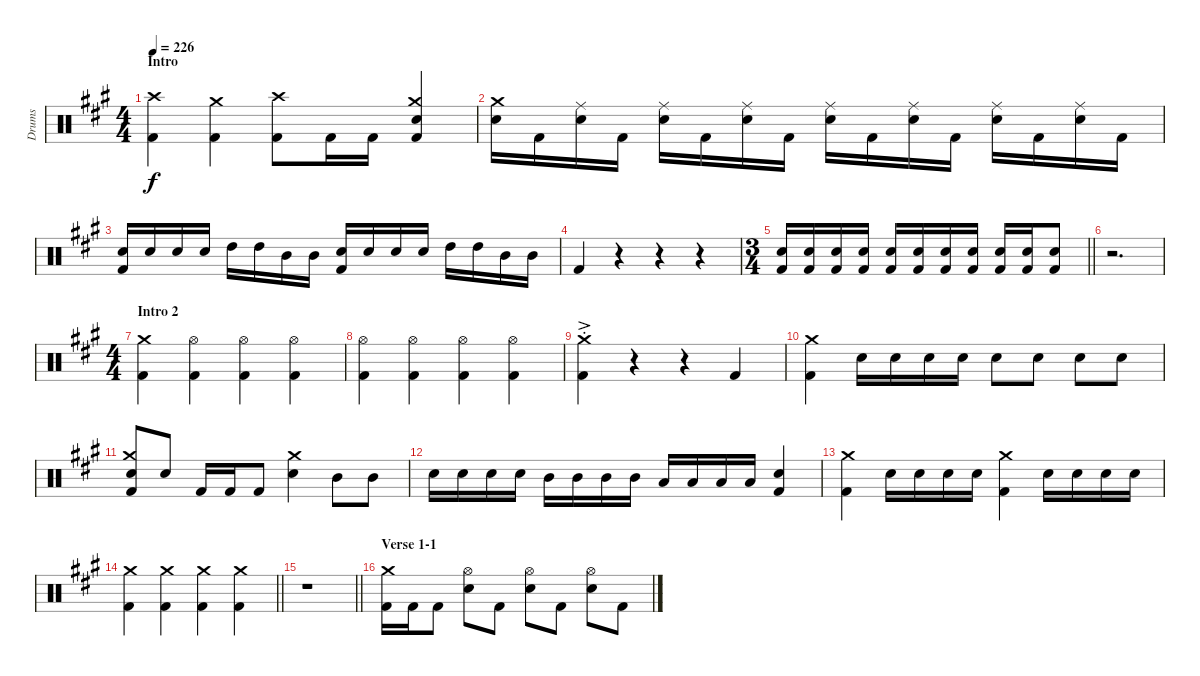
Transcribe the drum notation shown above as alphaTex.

\track ("Drums" "Drums") {instrument percussion}
\staff {score}
\articulation defaults
\ts (4 4)
\section ("" "Intro")
\tempo 226
\clef neutral
\ks a
("Crash high (hit)" "Kick (hit) 2").4{dy f} ("Crash medium (hit)" "Kick (hit) 2").4 ("Crash high (hit)" "Kick (hit) 2").8 "Kick (hit) 2".16 "Kick (hit) 2".16 ("Crash medium (hit)" "Snare (hit) 2" "Kick (hit) 2").4 |
("Crash medium (hit)" "Snare (hit) 2").16 "Kick (hit) 2".16 ("Ride (middle)" "Snare (hit) 2").16 "Kick (hit) 2".16 ("Ride (middle)" "Snare (hit) 2").16 "Kick (hit) 2".16 ("Ride (middle)" "Snare (hit) 2").16 "Kick (hit) 2".16 ("Ride (middle)" "Snare (hit) 2").16 "Kick (hit) 2".16 ("Ride (middle)" "Snare (hit) 2").16 "Kick (hit) 2".16 ("Ride (middle)" "Snare (hit) 2").16 "Kick (hit) 2".16 ("Ride (middle)" "Snare (hit) 2").16 "Kick (hit) 2".16 |
("Snare (hit) 2" "Kick (hit) 2").16 "Snare (hit) 2".16 "Snare (hit) 2".16 "Snare (hit) 2".16 "High Tom (hit)".16 "High Tom (hit)".16 "Mid Tom (hit)".16 "Mid Tom (hit)".16 ("Snare (hit) 2" "Kick (hit) 2").16 "Snare (hit) 2".16 "Snare (hit) 2".16 "Snare (hit) 2".16 "High Tom (hit)".16 "High Tom (hit)".16 "Mid Tom (hit)".16 "Mid Tom (hit)".16 |
"Kick (hit) 2".4 r.4 r.4 r.4 |
\ts (3 4)
\barLineRight lightlight
("Snare (hit) 2" "Kick (hit) 2").16 ("Snare (hit) 2" "Kick (hit) 2").16 ("Snare (hit) 2" "Kick (hit) 2").16 ("Snare (hit) 2" "Kick (hit) 2").16 ("Snare (hit) 2" "Kick (hit) 2").16 ("Snare (hit) 2" "Kick (hit) 2").16 ("Snare (hit) 2" "Kick (hit) 2").16 ("Snare (hit) 2" "Kick (hit) 2").16 ("Snare (hit) 2" "Kick (hit) 2").16 ("Snare (hit) 2" "Kick (hit) 2").16 ("Snare (hit) 2" "Kick (hit) 2").8 |
r.2{d} |
\ts (4 4)
\section ("" "Intro 2")
("Crash medium (hit)" "Kick (hit) 2").4 ("Hi-Hat (open)" "Kick (hit) 2").4 ("Hi-Hat (open)" "Kick (hit) 2").4 ("Hi-Hat (open)" "Kick (hit) 2").4 |
("Hi-Hat (open)" "Kick (hit) 2").4 ("Hi-Hat (open)" "Kick (hit) 2").4 ("Hi-Hat (open)" "Kick (hit) 2").4 ("Hi-Hat (open)" "Kick (hit) 2").4 |
("Crash medium (hit)"{ac st} "Kick (hit) 2").4 r.4 r.4 "Kick (hit) 2".4 |
("Crash medium (hit)" "Kick (hit) 2").4 "Snare (hit) 2".16 "Snare (hit) 2".16 "Snare (hit) 2".16 "Snare (hit) 2".16 "Snare (hit) 2".8 "Snare (hit) 2".8 "Snare (hit) 2".8 "Snare (hit) 2".8 |
("Crash medium (hit)" "Snare (hit) 2" "Kick (hit) 2").8 "Snare (hit) 2".8 "Kick (hit) 2".16 "Kick (hit) 2".16 "Kick (hit) 2".8 ("Crash medium (hit)" "Snare (hit) 2").4 "Mid Tom (hit)".8 "Mid Tom (hit)".8 |
"Snare (hit) 2".16 "Snare (hit) 2".16 "Snare (hit) 2".16 "Snare (hit) 2".16 "Mid Tom (hit)".16 "Mid Tom (hit)".16 "Mid Tom (hit)".16 "Mid Tom (hit)".16 "Low Tom (hit)".16 "Low Tom (hit)".16 "Low Tom (hit)".16 "Low Tom (hit)".16 ("Snare (hit) 2" "Kick (hit) 2").4 |
("Crash medium (hit)" "Kick (hit) 2").4 "Snare (hit) 2".16 "Snare (hit) 2".16 "Snare (hit) 2".16 "Snare (hit) 2".16 ("Crash medium (hit)" "Kick (hit) 2").4 "Snare (hit) 2".16 "Snare (hit) 2".16 "Snare (hit) 2".16 "Snare (hit) 2".16 |
\barLineRight lightlight
("Crash medium (hit)" "Kick (hit) 2").4 ("Crash medium (hit)" "Kick (hit) 2").4 ("Crash medium (hit)" "Kick (hit) 2").4 ("Crash medium (hit)" "Kick (hit) 2").4 |
\barLineRight lightlight
r.1 |
\section ("" "Verse 1-1")
("Crash medium (hit)" "Kick (hit) 2").16 "Kick (hit) 2".16 "Kick (hit) 2".8 ("Hi-Hat (open)" "Snare (hit) 2").8 "Kick (hit) 2".8 ("Hi-Hat (open)" "Snare (hit) 2").8 "Kick (hit) 2".8 ("Hi-Hat (open)" "Snare (hit) 2").8 "Kick (hit) 2".8
